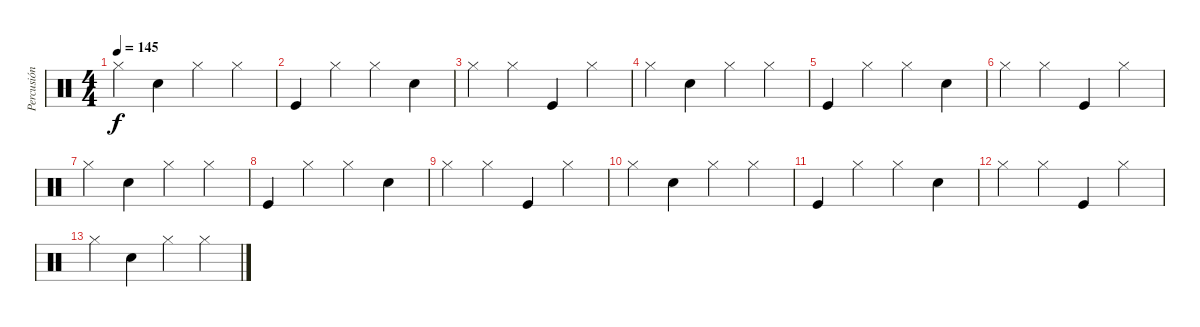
\track ("Percusión" "Percusión") {instrument percussion}
\staff {score}
\articulation defaults
\ts (4 4)
\tempo 145
\clef neutral
\ks c "Hi-Hat (closed)".4{dy f} "Snare (hit) 2".4 "Hi-Hat (closed)".4 "Hi-Hat (closed)".4
|
"Kick (hit)".4 "Hi-Hat (closed)".4 "Hi-Hat (closed)".4 "Snare (hit) 2".4 |
"Hi-Hat (closed)".4 "Hi-Hat (closed)".4 "Kick (hit)".4 "Hi-Hat (closed)".4 |
"Hi-Hat (closed)".4 "Snare (hit) 2".4 "Hi-Hat (closed)".4 "Hi-Hat (closed)".4 |
"Kick (hit)".4 "Hi-Hat (closed)".4 "Hi-Hat (closed)".4 "Snare (hit) 2".4 |
"Hi-Hat (closed)".4 "Hi-Hat (closed)".4 "Kick (hit)".4 "Hi-Hat (closed)".4 |
"Hi-Hat (closed)".4 "Snare (hit) 2".4 "Hi-Hat (closed)".4 "Hi-Hat (closed)".4 |
"Kick (hit)".4 "Hi-Hat (closed)".4 "Hi-Hat (closed)".4 "Snare (hit) 2".4 |
"Hi-Hat (closed)".4 "Hi-Hat (closed)".4 "Kick (hit)".4 "Hi-Hat (closed)".4 |
"Hi-Hat (closed)".4 "Snare (hit) 2".4 "Hi-Hat (closed)".4 "Hi-Hat (closed)".4 |
"Kick (hit)".4 "Hi-Hat (closed)".4 "Hi-Hat (closed)".4 "Snare (hit) 2".4 |
"Hi-Hat (closed)".4 "Hi-Hat (closed)".4 "Kick (hit)".4 "Hi-Hat (closed)".4 |
"Hi-Hat (closed)".4 "Snare (hit) 2".4 "Hi-Hat (closed)".4 "Hi-Hat (closed)".4
